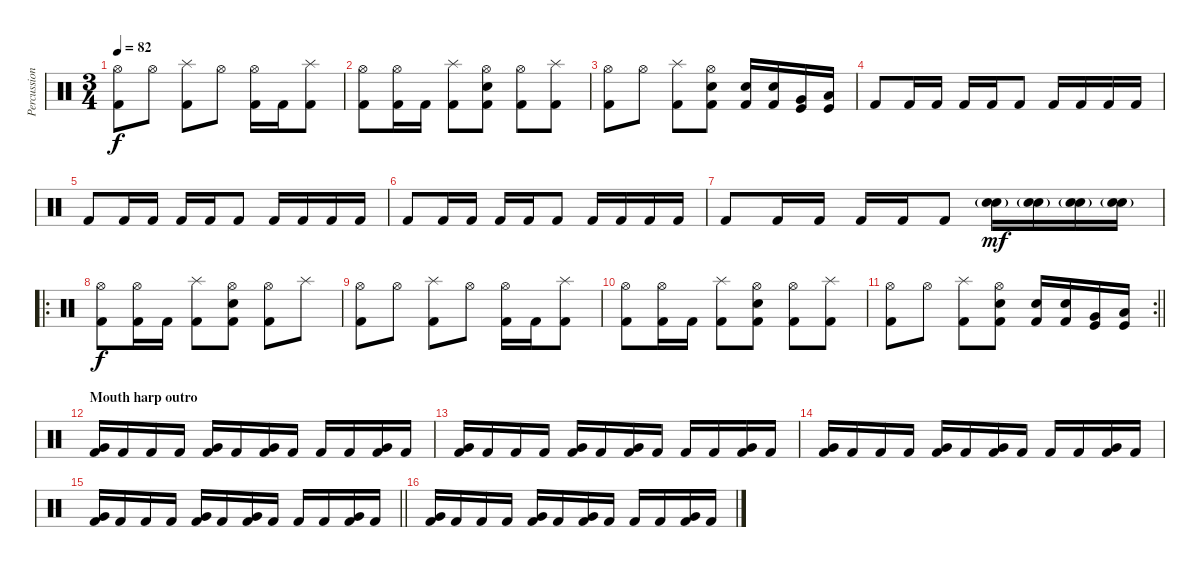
\track ("Percussion" "Percussion") {instrument percussion}
\staff {score}
\articulation defaults
\ts (3 4)
\tempo 82
\clef neutral
\ks c
("Hi-Hat (open)" "Kick (hit) 2").8{dy f} "Hi-Hat (open)".8 ("Splash (hit)" "Kick (hit) 2").8 "Hi-Hat (open)".8 ("Hi-Hat (open)" "Kick (hit) 2").16 "Kick (hit) 2".16 ("Splash (hit)" "Kick (hit) 2").8 |
("Hi-Hat (open)" "Kick (hit) 2").8 ("Hi-Hat (open)" "Kick (hit) 2").16 "Kick (hit) 2".16 ("Splash (hit)" "Kick (hit) 2").8 ("Hi-Hat (open)" "Electric Snare (hit)" "Kick (hit) 2").8 ("Hi-Hat (open)" "Kick (hit) 2").8 ("Splash (hit)" "Kick (hit) 2").8 |
("Hi-Hat (open)" "Kick (hit) 2").8 "Hi-Hat (open)".8 ("Splash (hit)" "Kick (hit) 2").8 ("Hi-Hat (open)" "Electric Snare (hit)" "Kick (hit) 2").8 ("Electric Snare (hit)" "Kick (hit) 2").16 ("Electric Snare (hit)" "Kick (hit) 2").16 ("Very Low Tom (hit)" "Kick (hit)").16 ("Low Floor Tom (hit)" "Kick (hit)").16 |
"Kick (hit) 2".8 "Kick (hit) 2".16 "Kick (hit) 2".16 "Kick (hit) 2".16 "Kick (hit) 2".16 "Kick (hit) 2".8 "Kick (hit) 2".16 "Kick (hit) 2".16 "Kick (hit) 2".16 "Kick (hit) 2".16 |
"Kick (hit) 2".8 "Kick (hit) 2".16 "Kick (hit) 2".16 "Kick (hit) 2".16 "Kick (hit) 2".16 "Kick (hit) 2".8 "Kick (hit) 2".16 "Kick (hit) 2".16 "Kick (hit) 2".16 "Kick (hit) 2".16 |
"Kick (hit) 2".8 "Kick (hit) 2".16 "Kick (hit) 2".16 "Kick (hit) 2".16 "Kick (hit) 2".16 "Kick (hit) 2".8 "Kick (hit) 2".16 "Kick (hit) 2".16 "Kick (hit) 2".16 "Kick (hit) 2".16 |
"Kick (hit) 2".8 "Kick (hit) 2".16 "Kick (hit) 2".16 "Kick (hit) 2".16 "Kick (hit) 2".16 "Kick (hit) 2".8 ("Electric Snare (hit)" "Snare (hit) 2"{g}).16{dy mf} ("Electric Snare (hit)" "Snare (hit) 2"{g}).16 ("Electric Snare (hit)" "Snare (hit) 2"{g}).16 ("Electric Snare (hit)" "Snare (hit) 2"{g}).16 |
\ro
("Hi-Hat (open)" "Kick (hit) 2").8{dy f} ("Hi-Hat (open)" "Kick (hit) 2").16 "Kick (hit) 2".16 ("Splash (hit)" "Kick (hit) 2").8 ("Hi-Hat (open)" "Electric Snare (hit)" "Kick (hit) 2").8 ("Hi-Hat (open)" "Kick (hit) 2").8 "Splash (hit)".8 |
("Hi-Hat (open)" "Kick (hit) 2").8 "Hi-Hat (open)".8 ("Splash (hit)" "Kick (hit) 2").8 "Hi-Hat (open)".8 ("Hi-Hat (open)" "Kick (hit) 2").16 "Kick (hit) 2".16 ("Splash (hit)" "Kick (hit) 2").8 |
("Hi-Hat (open)" "Kick (hit) 2").8 ("Hi-Hat (open)" "Kick (hit) 2").16 "Kick (hit) 2".16 ("Splash (hit)" "Kick (hit) 2").8 ("Hi-Hat (open)" "Electric Snare (hit)" "Kick (hit) 2").8 ("Hi-Hat (open)" "Kick (hit) 2").8 ("Splash (hit)" "Kick (hit) 2").8 |
\rc 2
\barLineRight lightlight
("Hi-Hat (open)" "Kick (hit) 2").8 "Hi-Hat (open)".8 ("Splash (hit)" "Kick (hit) 2").8 ("Hi-Hat (open)" "Electric Snare (hit)" "Kick (hit) 2").8 ("Electric Snare (hit)" "Kick (hit) 2").16 ("Electric Snare (hit)" "Kick (hit) 2").16 ("Very Low Tom (hit)" "Kick (hit)").16 ("Low Floor Tom (hit)" "Kick (hit)").16 |
\section ("" "Mouth harp outro")
("Very Low Tom (hit)" "Kick (hit) 2").16 "Kick (hit) 2".16 "Kick (hit) 2".16 "Kick (hit) 2".16 ("Very Low Tom (hit)" "Kick (hit) 2").16 "Kick (hit) 2".16 ("Very Low Tom (hit)" "Kick (hit) 2").16 "Kick (hit) 2".16 "Kick (hit) 2".16 "Kick (hit) 2".16 ("Very Low Tom (hit)" "Kick (hit) 2").16 "Kick (hit) 2".16 |
("Very Low Tom (hit)" "Kick (hit) 2").16 "Kick (hit) 2".16 "Kick (hit) 2".16 "Kick (hit) 2".16 ("Very Low Tom (hit)" "Kick (hit) 2").16 "Kick (hit) 2".16 ("Very Low Tom (hit)" "Kick (hit) 2").16 "Kick (hit) 2".16 "Kick (hit) 2".16 "Kick (hit) 2".16 ("Very Low Tom (hit)" "Kick (hit) 2").16 "Kick (hit) 2".16 |
("Very Low Tom (hit)" "Kick (hit) 2").16 "Kick (hit) 2".16 "Kick (hit) 2".16 "Kick (hit) 2".16 ("Very Low Tom (hit)" "Kick (hit) 2").16 "Kick (hit) 2".16 ("Very Low Tom (hit)" "Kick (hit) 2").16 "Kick (hit) 2".16 "Kick (hit) 2".16 "Kick (hit) 2".16 ("Very Low Tom (hit)" "Kick (hit) 2").16 "Kick (hit) 2".16 |
\barLineRight lightlight
("Very Low Tom (hit)" "Kick (hit) 2").16 "Kick (hit) 2".16 "Kick (hit) 2".16 "Kick (hit) 2".16 ("Very Low Tom (hit)" "Kick (hit) 2").16 "Kick (hit) 2".16 ("Very Low Tom (hit)" "Kick (hit) 2").16 "Kick (hit) 2".16 "Kick (hit) 2".16 "Kick (hit) 2".16 ("Very Low Tom (hit)" "Kick (hit) 2").16 "Kick (hit) 2".16 |
("Very Low Tom (hit)" "Kick (hit) 2").16 "Kick (hit) 2".16 "Kick (hit) 2".16 "Kick (hit) 2".16 ("Very Low Tom (hit)" "Kick (hit) 2").16 "Kick (hit) 2".16 ("Very Low Tom (hit)" "Kick (hit) 2").16 "Kick (hit) 2".16 "Kick (hit) 2".16 "Kick (hit) 2".16 ("Very Low Tom (hit)" "Kick (hit) 2").16 "Kick (hit) 2".16
